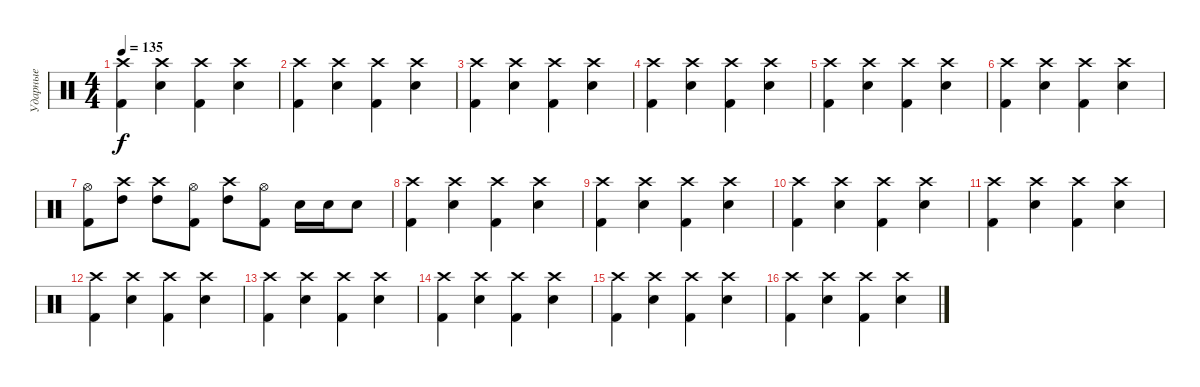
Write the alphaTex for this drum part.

\track ("Ударные" "Ударные") {instrument percussion}
\staff {score}
\articulation defaults
\ts (4 4)
\tempo 135
\clef neutral
\ks c
("Crash high (hit)" "Kick (hit) 2").4{dy f} ("Crash high (hit)" "Snare (hit) 2").4 ("Crash high (hit)" "Kick (hit) 2").4 ("Crash high (hit)" "Snare (hit) 2").4 |
("Crash high (hit)" "Kick (hit) 2").4 ("Crash high (hit)" "Snare (hit) 2").4 ("Crash high (hit)" "Kick (hit) 2").4 ("Crash high (hit)" "Snare (hit) 2").4 |
("Crash high (hit)" "Kick (hit) 2").4 ("Crash high (hit)" "Snare (hit) 2").4 ("Crash high (hit)" "Kick (hit) 2").4 ("Crash high (hit)" "Snare (hit) 2").4 |
("Crash high (hit)" "Kick (hit) 2").4 ("Crash high (hit)" "Snare (hit) 2").4 ("Crash high (hit)" "Kick (hit) 2").4 ("Crash high (hit)" "Snare (hit) 2").4 |
("Crash high (hit)" "Kick (hit) 2").4 ("Crash high (hit)" "Snare (hit) 2").4 ("Crash high (hit)" "Kick (hit) 2").4 ("Crash high (hit)" "Snare (hit) 2").4 |
("Crash high (hit)" "Kick (hit) 2").4 ("Crash high (hit)" "Snare (hit) 2").4 ("Crash high (hit)" "Kick (hit) 2").4 ("Crash high (hit)" "Snare (hit) 2").4 |
("Hi-Hat (open)" "Kick (hit) 2").8 ("Crash high (hit)" "High Tom (hit)").8 ("Crash high (hit)" "High Tom (hit)").8 ("Hi-Hat (open)" "Kick (hit) 2").8 ("Crash high (hit)" "High Tom (hit)").8 ("Hi-Hat (open)" "Kick (hit) 2").8 "Snare (hit) 2".16 "Snare (hit) 2".16 "Snare (hit) 2".8 |
("Crash high (hit)" "Kick (hit) 2").4 ("Crash high (hit)" "Snare (hit) 2").4 ("Crash high (hit)" "Kick (hit) 2").4 ("Crash high (hit)" "Snare (hit) 2").4 |
("Crash high (hit)" "Kick (hit) 2").4 ("Crash high (hit)" "Snare (hit) 2").4 ("Crash high (hit)" "Kick (hit) 2").4 ("Crash high (hit)" "Snare (hit) 2").4 |
("Crash high (hit)" "Kick (hit) 2").4 ("Crash high (hit)" "Snare (hit) 2").4 ("Crash high (hit)" "Kick (hit) 2").4 ("Crash high (hit)" "Snare (hit) 2").4 |
("Crash high (hit)" "Kick (hit) 2").4 ("Crash high (hit)" "Snare (hit) 2").4 ("Crash high (hit)" "Kick (hit) 2").4 ("Crash high (hit)" "Snare (hit) 2").4 |
("Crash high (hit)" "Kick (hit) 2").4 ("Crash high (hit)" "Snare (hit) 2").4 ("Crash high (hit)" "Kick (hit) 2").4 ("Crash high (hit)" "Snare (hit) 2").4 |
("Crash high (hit)" "Kick (hit) 2").4 ("Crash high (hit)" "Snare (hit) 2").4 ("Crash high (hit)" "Kick (hit) 2").4 ("Crash high (hit)" "Snare (hit) 2").4 |
("Crash high (hit)" "Kick (hit) 2").4 ("Crash high (hit)" "Snare (hit) 2").4 ("Crash high (hit)" "Kick (hit) 2").4 ("Crash high (hit)" "Snare (hit) 2").4 |
("Crash high (hit)" "Kick (hit) 2").4 ("Crash high (hit)" "Snare (hit) 2").4 ("Crash high (hit)" "Kick (hit) 2").4 ("Crash high (hit)" "Snare (hit) 2").4 |
("Crash high (hit)" "Kick (hit) 2").4 ("Crash high (hit)" "Snare (hit) 2").4 ("Crash high (hit)" "Kick (hit) 2").4 ("Crash high (hit)" "Snare (hit) 2").4
